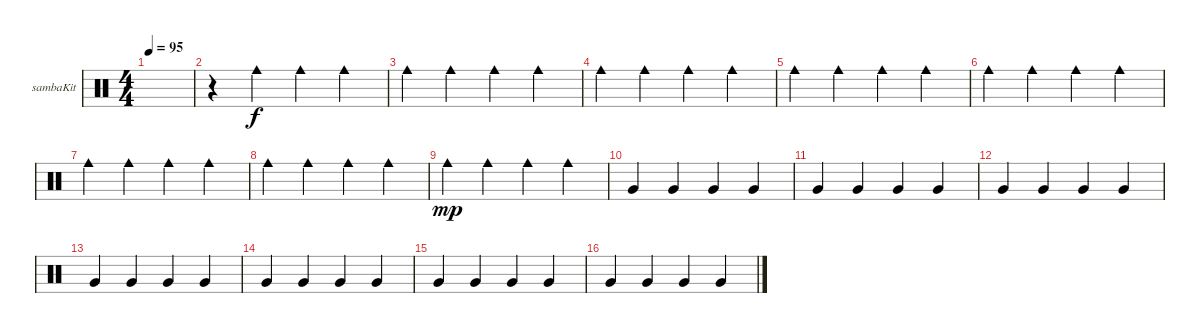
\defaultSystemsLayout 4
\bracketExtendMode groupsimilarinstruments
\firstSystemTrackNameOrientation horizontal
\otherSystemsTrackNameOrientation horizontal
\track ("Kit-Samba" "sambaKit") {instrument percussion}
\staff {score}
\articulation defaults
\ts (4 4)
\tempo 95
\clef neutral
\ks c
|
r.4 "Cowbell medium (hit)".4 "Cowbell medium (hit)".4 "Cowbell medium (hit)".4 |
"Cowbell medium (hit)".4 "Cowbell medium (hit)".4 "Cowbell medium (hit)".4 "Cowbell medium (hit)".4 |
"Cowbell medium (hit)".4 "Cowbell medium (hit)".4 "Cowbell medium (hit)".4 "Cowbell medium (hit)".4 |
"Cowbell medium (hit)".4 "Cowbell medium (hit)".4 "Cowbell medium (hit)".4 "Cowbell medium (hit)".4 |
"Cowbell medium (hit)".4 "Cowbell medium (hit)".4 "Cowbell medium (hit)".4 "Cowbell medium (hit)".4 |
"Cowbell medium (hit)".4 "Cowbell medium (hit)".4 "Cowbell medium (hit)".4 "Cowbell medium (hit)".4 |
"Cowbell medium (hit)".4 "Cowbell medium (hit)".4 "Cowbell medium (hit)".4 "Cowbell medium (hit)".4 |
"Cowbell medium (hit)".4{dy mp} "Cowbell medium (hit)".4 "Cowbell medium (hit)".4 "Cowbell medium (hit)".4 |
"Very Low Tom (hit)".4 "Very Low Tom (hit)".4 "Very Low Tom (hit)".4 "Very Low Tom (hit)".4 |
"Very Low Tom (hit)".4 "Very Low Tom (hit)".4 "Very Low Tom (hit)".4 "Very Low Tom (hit)".4 |
"Very Low Tom (hit)".4 "Very Low Tom (hit)".4 "Very Low Tom (hit)".4 "Very Low Tom (hit)".4 |
"Very Low Tom (hit)".4 "Very Low Tom (hit)".4 "Very Low Tom (hit)".4 "Very Low Tom (hit)".4 |
"Very Low Tom (hit)".4 "Very Low Tom (hit)".4 "Very Low Tom (hit)".4 "Very Low Tom (hit)".4 |
"Very Low Tom (hit)".4 "Very Low Tom (hit)".4 "Very Low Tom (hit)".4 "Very Low Tom (hit)".4 |
"Very Low Tom (hit)".4 "Very Low Tom (hit)".4 "Very Low Tom (hit)".4 "Very Low Tom (hit)".4
